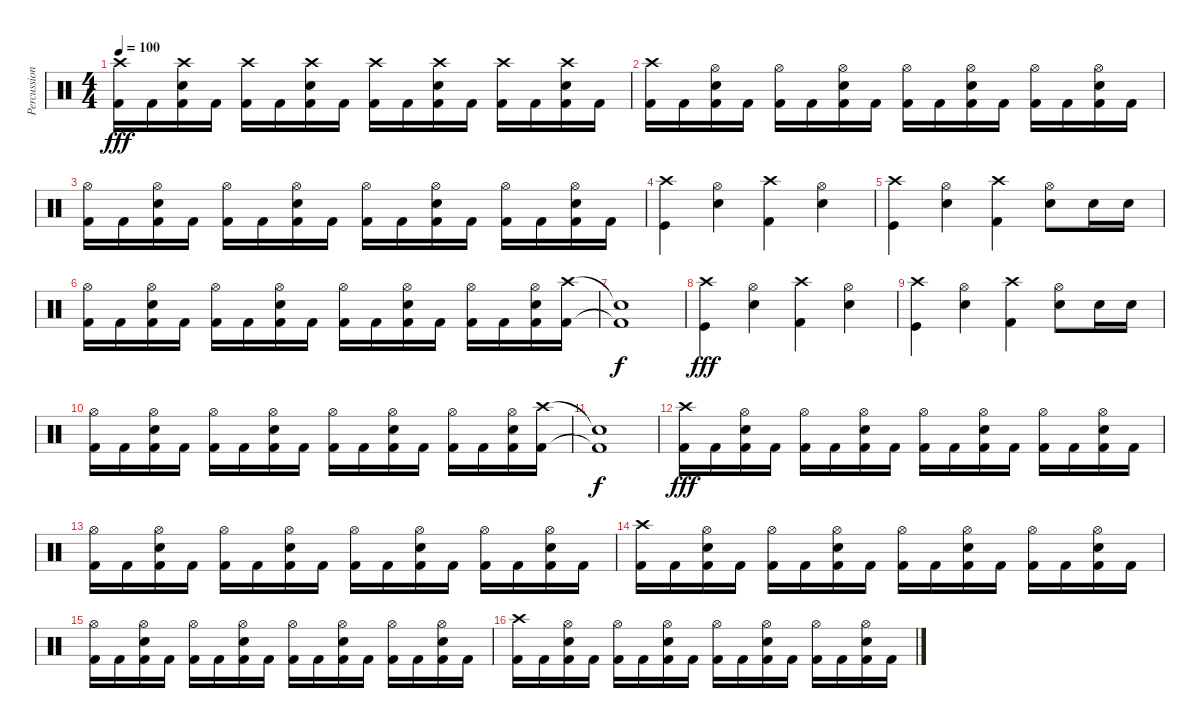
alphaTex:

\track ("Percussion" "Percussion") {instrument percussion}
\staff {score}
\articulation defaults
\ts (4 4)
\tempo 100
\clef neutral
\ks c
("Crash high (hit)" "Kick (hit) 2").16{dy fff} "Kick (hit) 2".16 ("Crash high (hit)" "Snare (hit) 2" "Kick (hit) 2").16 "Kick (hit) 2".16 ("Crash high (hit)" "Kick (hit) 2").16 "Kick (hit) 2".16 ("Crash high (hit)" "Snare (hit) 2" "Kick (hit) 2").16 "Kick (hit) 2".16 ("Crash high (hit)" "Kick (hit) 2").16 "Kick (hit) 2".16 ("Crash high (hit)" "Snare (hit) 2" "Kick (hit) 2").16 "Kick (hit) 2".16 ("Crash high (hit)" "Kick (hit) 2").16 "Kick (hit) 2".16 ("Crash high (hit)" "Snare (hit) 2" "Kick (hit) 2").16 "Kick (hit) 2".16 |
("Crash high (hit)" "Kick (hit) 2").16 "Kick (hit) 2".16 ("Hi-Hat (open)" "Snare (hit) 2" "Kick (hit) 2").16 "Kick (hit) 2".16 ("Hi-Hat (open)" "Kick (hit) 2").16 "Kick (hit) 2".16 ("Hi-Hat (open)" "Snare (hit) 2" "Kick (hit) 2").16 "Kick (hit) 2".16 ("Hi-Hat (open)" "Kick (hit) 2").16 "Kick (hit) 2".16 ("Hi-Hat (open)" "Snare (hit) 2" "Kick (hit) 2").16 "Kick (hit) 2".16 ("Hi-Hat (open)" "Kick (hit) 2").16 "Kick (hit) 2".16 ("Hi-Hat (open)" "Snare (hit) 2" "Kick (hit) 2").16 "Kick (hit) 2".16 |
("Hi-Hat (open)" "Kick (hit) 2").16 "Kick (hit) 2".16 ("Hi-Hat (open)" "Snare (hit) 2" "Kick (hit) 2").16 "Kick (hit) 2".16 ("Hi-Hat (open)" "Kick (hit) 2").16 "Kick (hit) 2".16 ("Hi-Hat (open)" "Snare (hit) 2" "Kick (hit) 2").16 "Kick (hit) 2".16 ("Hi-Hat (open)" "Kick (hit) 2").16 "Kick (hit) 2".16 ("Hi-Hat (open)" "Snare (hit) 2" "Kick (hit) 2").16 "Kick (hit) 2".16 ("Hi-Hat (open)" "Kick (hit) 2").16 "Kick (hit) 2".16 ("Hi-Hat (open)" "Snare (hit) 2" "Kick (hit) 2").16 "Kick (hit) 2".16 |
("Crash high (hit)" "Kick (hit)").4 ("Hi-Hat (open)" "Snare (hit) 2").4 ("Crash high (hit)" "Kick (hit) 2").4 ("Hi-Hat (open)" "Snare (hit) 2").4 |
("Crash high (hit)" "Kick (hit)").4 ("Hi-Hat (open)" "Snare (hit) 2").4 ("Crash high (hit)" "Kick (hit) 2").4 ("Hi-Hat (open)" "Snare (hit) 2").8 "Snare (hit) 2".16 "Snare (hit) 2".16 |
("Hi-Hat (open)" "Kick (hit) 2").16 "Kick (hit) 2".16 ("Hi-Hat (open)" "Snare (hit) 2" "Kick (hit) 2").16 "Kick (hit) 2".16 ("Hi-Hat (open)" "Kick (hit) 2").16 "Kick (hit) 2".16 ("Hi-Hat (open)" "Snare (hit) 2" "Kick (hit) 2").16 "Kick (hit) 2".16 ("Hi-Hat (open)" "Kick (hit) 2").16 "Kick (hit) 2".16 ("Hi-Hat (open)" "Snare (hit) 2" "Kick (hit) 2").16 "Kick (hit) 2".16 ("Hi-Hat (open)" "Kick (hit) 2").16 "Kick (hit) 2".16 ("Hi-Hat (open)" "Snare (hit) 2" "Kick (hit) 2").16 ("Crash high (hit)" "Kick (hit) 2").16 |
("Snare (hit)"{t} "Kick (hit) 2"{t}).1{dy f} |
("Crash high (hit)" "Kick (hit)").4{dy fff} ("Hi-Hat (open)" "Snare (hit) 2").4 ("Crash high (hit)" "Kick (hit) 2").4 ("Hi-Hat (open)" "Snare (hit) 2").4 |
("Crash high (hit)" "Kick (hit)").4 ("Hi-Hat (open)" "Snare (hit) 2").4 ("Crash high (hit)" "Kick (hit) 2").4 ("Hi-Hat (open)" "Snare (hit) 2").8 "Snare (hit) 2".16 "Snare (hit) 2".16 |
("Hi-Hat (open)" "Kick (hit) 2").16 "Kick (hit) 2".16 ("Hi-Hat (open)" "Snare (hit) 2" "Kick (hit) 2").16 "Kick (hit) 2".16 ("Hi-Hat (open)" "Kick (hit) 2").16 "Kick (hit) 2".16 ("Hi-Hat (open)" "Snare (hit) 2" "Kick (hit) 2").16 "Kick (hit) 2".16 ("Hi-Hat (open)" "Kick (hit) 2").16 "Kick (hit) 2".16 ("Hi-Hat (open)" "Snare (hit) 2" "Kick (hit) 2").16 "Kick (hit) 2".16 ("Hi-Hat (open)" "Kick (hit) 2").16 "Kick (hit) 2".16 ("Hi-Hat (open)" "Snare (hit) 2" "Kick (hit) 2").16 ("Crash high (hit)" "Kick (hit) 2").16 |
("Snare (hit)"{t} "Kick (hit) 2"{t}).1{dy f} |
("Crash high (hit)" "Kick (hit) 2").16{dy fff} "Kick (hit) 2".16 ("Hi-Hat (open)" "Snare (hit) 2" "Kick (hit) 2").16 "Kick (hit) 2".16 ("Hi-Hat (open)" "Kick (hit) 2").16 "Kick (hit) 2".16 ("Hi-Hat (open)" "Snare (hit) 2" "Kick (hit) 2").16 "Kick (hit) 2".16 ("Hi-Hat (open)" "Kick (hit) 2").16 "Kick (hit) 2".16 ("Hi-Hat (open)" "Snare (hit) 2" "Kick (hit) 2").16 "Kick (hit) 2".16 ("Hi-Hat (open)" "Kick (hit) 2").16 "Kick (hit) 2".16 ("Hi-Hat (open)" "Snare (hit) 2" "Kick (hit) 2").16 "Kick (hit) 2".16 |
("Hi-Hat (open)" "Kick (hit) 2").16 "Kick (hit) 2".16 ("Hi-Hat (open)" "Snare (hit) 2" "Kick (hit) 2").16 "Kick (hit) 2".16 ("Hi-Hat (open)" "Kick (hit) 2").16 "Kick (hit) 2".16 ("Hi-Hat (open)" "Snare (hit) 2" "Kick (hit) 2").16 "Kick (hit) 2".16 ("Hi-Hat (open)" "Kick (hit) 2").16 "Kick (hit) 2".16 ("Hi-Hat (open)" "Snare (hit) 2" "Kick (hit) 2").16 "Kick (hit) 2".16 ("Hi-Hat (open)" "Kick (hit) 2").16 "Kick (hit) 2".16 ("Hi-Hat (open)" "Snare (hit) 2" "Kick (hit) 2").16 "Kick (hit) 2".16 |
("Crash high (hit)" "Kick (hit) 2").16 "Kick (hit) 2".16 ("Hi-Hat (open)" "Snare (hit) 2" "Kick (hit) 2").16 "Kick (hit) 2".16 ("Hi-Hat (open)" "Kick (hit) 2").16 "Kick (hit) 2".16 ("Hi-Hat (open)" "Snare (hit) 2" "Kick (hit) 2").16 "Kick (hit) 2".16 ("Hi-Hat (open)" "Kick (hit) 2").16 "Kick (hit) 2".16 ("Hi-Hat (open)" "Snare (hit) 2" "Kick (hit) 2").16 "Kick (hit) 2".16 ("Hi-Hat (open)" "Kick (hit) 2").16 "Kick (hit) 2".16 ("Hi-Hat (open)" "Snare (hit) 2" "Kick (hit) 2").16 "Kick (hit) 2".16 |
("Hi-Hat (open)" "Kick (hit) 2").16 "Kick (hit) 2".16 ("Hi-Hat (open)" "Snare (hit) 2" "Kick (hit) 2").16 "Kick (hit) 2".16 ("Hi-Hat (open)" "Kick (hit) 2").16 "Kick (hit) 2".16 ("Hi-Hat (open)" "Snare (hit) 2" "Kick (hit) 2").16 "Kick (hit) 2".16 ("Hi-Hat (open)" "Kick (hit) 2").16 "Kick (hit) 2".16 ("Hi-Hat (open)" "Snare (hit) 2" "Kick (hit) 2").16 "Kick (hit) 2".16 ("Hi-Hat (open)" "Kick (hit) 2").16 "Kick (hit) 2".16 ("Hi-Hat (open)" "Snare (hit) 2" "Kick (hit) 2").16 "Kick (hit) 2".16 |
("Crash high (hit)" "Kick (hit) 2").16 "Kick (hit) 2".16 ("Hi-Hat (open)" "Snare (hit) 2" "Kick (hit) 2").16 "Kick (hit) 2".16 ("Hi-Hat (open)" "Kick (hit) 2").16 "Kick (hit) 2".16 ("Hi-Hat (open)" "Snare (hit) 2" "Kick (hit) 2").16 "Kick (hit) 2".16 ("Hi-Hat (open)" "Kick (hit) 2").16 "Kick (hit) 2".16 ("Hi-Hat (open)" "Snare (hit) 2" "Kick (hit) 2").16 "Kick (hit) 2".16 ("Hi-Hat (open)" "Kick (hit) 2").16 "Kick (hit) 2".16 ("Hi-Hat (open)" "Snare (hit) 2" "Kick (hit) 2").16 "Kick (hit) 2".16
